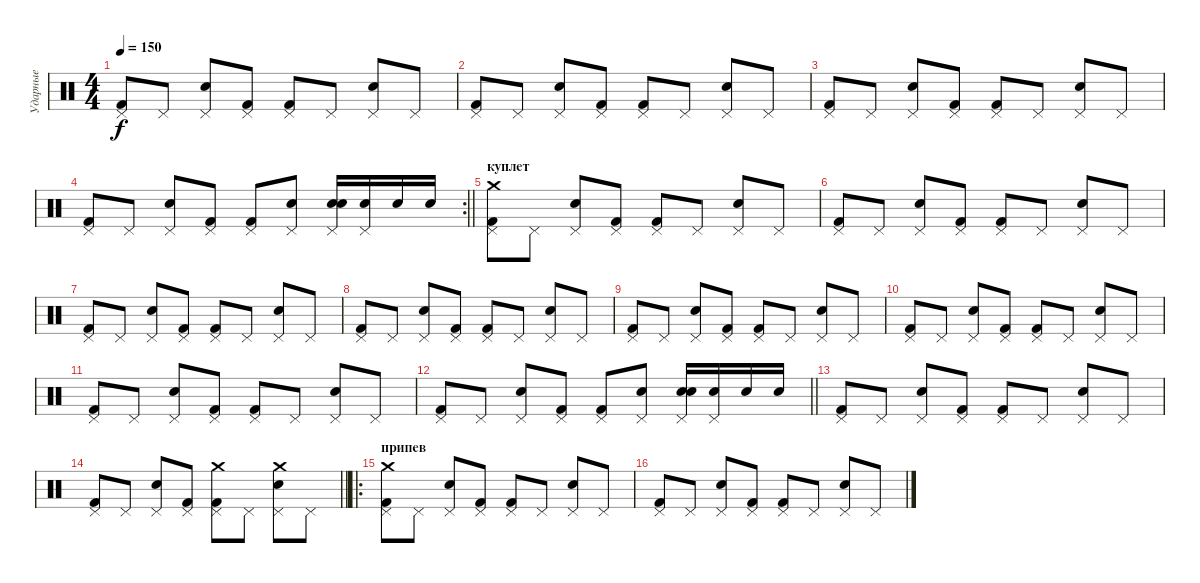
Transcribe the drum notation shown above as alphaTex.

\track ("Ударные" "Ударные") {instrument percussion}
\staff {score}
\articulation defaults
\ts (4 4)
\tempo 150
\clef neutral
\ks c
("Pedal Hi-Hat (hit)" "Kick (hit) 2").8{dy f} "Pedal Hi-Hat (hit)".8 ("Pedal Hi-Hat (hit)" "Electric Snare (hit)").8 ("Pedal Hi-Hat (hit)" "Kick (hit) 2").8 ("Pedal Hi-Hat (hit)" "Kick (hit) 2").8 "Pedal Hi-Hat (hit)".8 ("Pedal Hi-Hat (hit)" "Electric Snare (hit)").8 "Pedal Hi-Hat (hit)".8 |
("Pedal Hi-Hat (hit)" "Kick (hit) 2").8 "Pedal Hi-Hat (hit)".8 ("Pedal Hi-Hat (hit)" "Electric Snare (hit)").8 ("Pedal Hi-Hat (hit)" "Kick (hit) 2").8 ("Pedal Hi-Hat (hit)" "Kick (hit) 2").8 "Pedal Hi-Hat (hit)".8 ("Pedal Hi-Hat (hit)" "Electric Snare (hit)").8 "Pedal Hi-Hat (hit)".8 |
("Pedal Hi-Hat (hit)" "Kick (hit) 2").8 "Pedal Hi-Hat (hit)".8 ("Pedal Hi-Hat (hit)" "Electric Snare (hit)").8 ("Pedal Hi-Hat (hit)" "Kick (hit) 2").8 ("Pedal Hi-Hat (hit)" "Kick (hit) 2").8 "Pedal Hi-Hat (hit)".8 ("Pedal Hi-Hat (hit)" "Electric Snare (hit)").8 "Pedal Hi-Hat (hit)".8 |
\rc 2
\barLineRight lightlight
("Pedal Hi-Hat (hit)" "Kick (hit) 2").8 "Pedal Hi-Hat (hit)".8 ("Pedal Hi-Hat (hit)" "Electric Snare (hit)").8 ("Pedal Hi-Hat (hit)" "Kick (hit) 2").8 ("Pedal Hi-Hat (hit)" "Kick (hit) 2").8 ("Pedal Hi-Hat (hit)" "Electric Snare (hit)").8 ("Electric Snare (hit)" "Pedal Hi-Hat (hit)" "Electric Snare (hit)").16 ("Electric Snare (hit)" "Pedal Hi-Hat (hit)").16 "Electric Snare (hit)".16 "Electric Snare (hit)".16 |
\section ("" "куплет")
("Crash medium (hit)" "Pedal Hi-Hat (hit)" "Kick (hit) 2").8 "Pedal Hi-Hat (hit)".8 ("Pedal Hi-Hat (hit)" "Electric Snare (hit)").8 ("Pedal Hi-Hat (hit)" "Kick (hit) 2").8 ("Pedal Hi-Hat (hit)" "Kick (hit) 2").8 "Pedal Hi-Hat (hit)".8 ("Pedal Hi-Hat (hit)" "Electric Snare (hit)").8 "Pedal Hi-Hat (hit)".8 |
("Pedal Hi-Hat (hit)" "Kick (hit) 2").8 "Pedal Hi-Hat (hit)".8 ("Pedal Hi-Hat (hit)" "Electric Snare (hit)").8 ("Pedal Hi-Hat (hit)" "Kick (hit) 2").8 ("Pedal Hi-Hat (hit)" "Kick (hit) 2").8 "Pedal Hi-Hat (hit)".8 ("Pedal Hi-Hat (hit)" "Electric Snare (hit)").8 "Pedal Hi-Hat (hit)".8 |
("Pedal Hi-Hat (hit)" "Kick (hit) 2").8 "Pedal Hi-Hat (hit)".8 ("Pedal Hi-Hat (hit)" "Electric Snare (hit)").8 ("Pedal Hi-Hat (hit)" "Kick (hit) 2").8 ("Pedal Hi-Hat (hit)" "Kick (hit) 2").8 "Pedal Hi-Hat (hit)".8 ("Pedal Hi-Hat (hit)" "Electric Snare (hit)").8 "Pedal Hi-Hat (hit)".8 |
("Pedal Hi-Hat (hit)" "Kick (hit) 2").8 "Pedal Hi-Hat (hit)".8 ("Pedal Hi-Hat (hit)" "Electric Snare (hit)").8 ("Pedal Hi-Hat (hit)" "Kick (hit) 2").8 ("Pedal Hi-Hat (hit)" "Kick (hit) 2").8 "Pedal Hi-Hat (hit)".8 ("Pedal Hi-Hat (hit)" "Electric Snare (hit)").8 "Pedal Hi-Hat (hit)".8 |
("Pedal Hi-Hat (hit)" "Kick (hit) 2").8 "Pedal Hi-Hat (hit)".8 ("Pedal Hi-Hat (hit)" "Electric Snare (hit)").8 ("Pedal Hi-Hat (hit)" "Kick (hit) 2").8 ("Pedal Hi-Hat (hit)" "Kick (hit) 2").8 "Pedal Hi-Hat (hit)".8 ("Pedal Hi-Hat (hit)" "Electric Snare (hit)").8 "Pedal Hi-Hat (hit)".8 |
("Pedal Hi-Hat (hit)" "Kick (hit) 2").8 "Pedal Hi-Hat (hit)".8 ("Pedal Hi-Hat (hit)" "Electric Snare (hit)").8 ("Pedal Hi-Hat (hit)" "Kick (hit) 2").8 ("Pedal Hi-Hat (hit)" "Kick (hit) 2").8 "Pedal Hi-Hat (hit)".8 ("Pedal Hi-Hat (hit)" "Electric Snare (hit)").8 "Pedal Hi-Hat (hit)".8 |
("Pedal Hi-Hat (hit)" "Kick (hit) 2").8 "Pedal Hi-Hat (hit)".8 ("Pedal Hi-Hat (hit)" "Electric Snare (hit)").8 ("Pedal Hi-Hat (hit)" "Kick (hit) 2").8 ("Pedal Hi-Hat (hit)" "Kick (hit) 2").8 "Pedal Hi-Hat (hit)".8 ("Pedal Hi-Hat (hit)" "Electric Snare (hit)").8 "Pedal Hi-Hat (hit)".8 |
\barLineRight lightlight
("Pedal Hi-Hat (hit)" "Kick (hit) 2").8 "Pedal Hi-Hat (hit)".8 ("Pedal Hi-Hat (hit)" "Electric Snare (hit)").8 ("Pedal Hi-Hat (hit)" "Kick (hit) 2").8 ("Pedal Hi-Hat (hit)" "Kick (hit) 2").8 ("Pedal Hi-Hat (hit)" "Electric Snare (hit)").8 ("Electric Snare (hit)" "Pedal Hi-Hat (hit)" "Electric Snare (hit)").16 ("Electric Snare (hit)" "Pedal Hi-Hat (hit)").16 "Electric Snare (hit)".16 "Electric Snare (hit)".16 |
("Pedal Hi-Hat (hit)" "Kick (hit) 2").8 "Pedal Hi-Hat (hit)".8 ("Pedal Hi-Hat (hit)" "Electric Snare (hit)").8 ("Pedal Hi-Hat (hit)" "Kick (hit) 2").8 ("Pedal Hi-Hat (hit)" "Kick (hit) 2").8 "Pedal Hi-Hat (hit)".8 ("Pedal Hi-Hat (hit)" "Electric Snare (hit)").8 "Pedal Hi-Hat (hit)".8 |
\barLineRight lightlight
("Pedal Hi-Hat (hit)" "Kick (hit) 2").8 "Pedal Hi-Hat (hit)".8 ("Pedal Hi-Hat (hit)" "Electric Snare (hit)").8 ("Pedal Hi-Hat (hit)" "Kick (hit) 2").8 ("Crash medium (hit)" "Pedal Hi-Hat (hit)" "Kick (hit) 2").8 "Pedal Hi-Hat (hit)".8 ("Crash medium (hit)" "Pedal Hi-Hat (hit)" "Electric Snare (hit)").8 "Pedal Hi-Hat (hit)".8 |
\ro
\section ("" "припев")
("Crash medium (hit)" "Pedal Hi-Hat (hit)" "Kick (hit) 2").8 "Pedal Hi-Hat (hit)".8 ("Pedal Hi-Hat (hit)" "Electric Snare (hit)").8 ("Pedal Hi-Hat (hit)" "Kick (hit) 2").8 ("Pedal Hi-Hat (hit)" "Kick (hit) 2").8 "Pedal Hi-Hat (hit)".8 ("Pedal Hi-Hat (hit)" "Electric Snare (hit)").8 "Pedal Hi-Hat (hit)".8 |
("Pedal Hi-Hat (hit)" "Kick (hit) 2").8 "Pedal Hi-Hat (hit)".8 ("Pedal Hi-Hat (hit)" "Electric Snare (hit)").8 ("Pedal Hi-Hat (hit)" "Kick (hit) 2").8 ("Pedal Hi-Hat (hit)" "Kick (hit) 2").8 "Pedal Hi-Hat (hit)".8 ("Pedal Hi-Hat (hit)" "Electric Snare (hit)").8 "Pedal Hi-Hat (hit)".8
